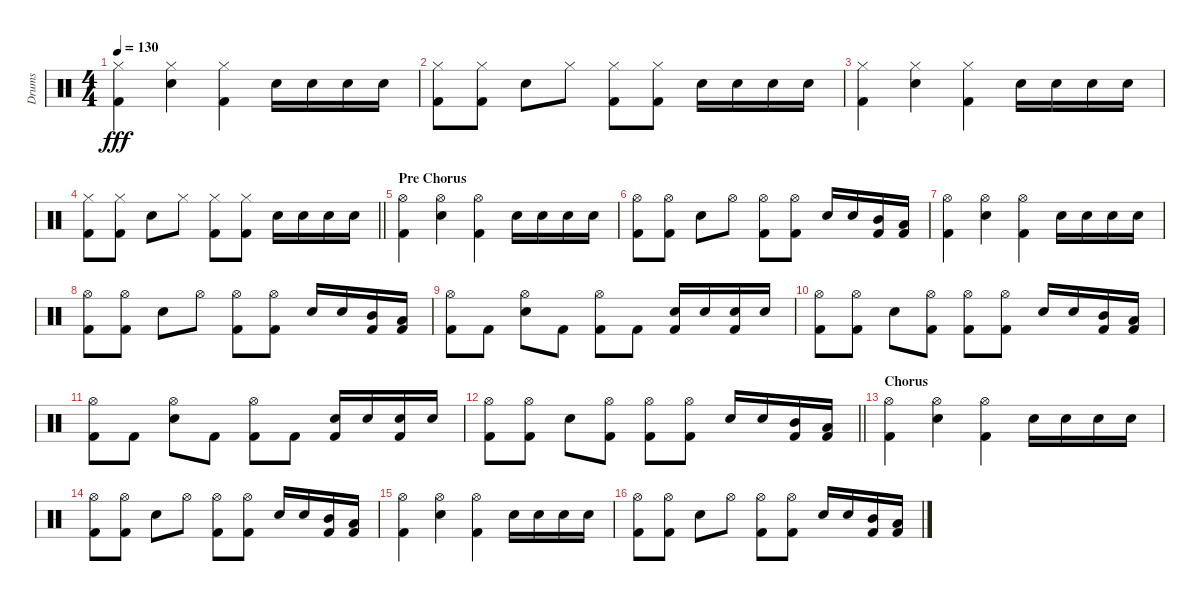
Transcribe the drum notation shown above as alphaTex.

\track ("Drums" "Drums") {instrument percussion}
\staff {score}
\articulation defaults
\ts (4 4)
\tempo 130
\clef neutral
\ks c
("Hi-Hat (closed)" "Kick (hit) 2").4{dy fff} ("Hi-Hat (closed)" "Electric Snare (hit)").4 ("Hi-Hat (closed)" "Kick (hit) 2").4 "Electric Snare (hit)".16 "Electric Snare (hit)".16 "Electric Snare (hit)".16 "Electric Snare (hit)".16 |
("Hi-Hat (closed)" "Kick (hit) 2").8 ("Hi-Hat (closed)" "Kick (hit) 2").8 "Electric Snare (hit)".8 "Hi-Hat (closed)".8 ("Hi-Hat (closed)" "Kick (hit) 2").8 ("Hi-Hat (closed)" "Kick (hit) 2").8 "Electric Snare (hit)".16 "Electric Snare (hit)".16 "Electric Snare (hit)".16 "Electric Snare (hit)".16 |
("Hi-Hat (closed)" "Kick (hit) 2").4 ("Hi-Hat (closed)" "Electric Snare (hit)").4 ("Hi-Hat (closed)" "Kick (hit) 2").4 "Electric Snare (hit)".16 "Electric Snare (hit)".16 "Electric Snare (hit)".16 "Electric Snare (hit)".16 |
\barLineRight lightlight
("Hi-Hat (closed)" "Kick (hit) 2").8 ("Hi-Hat (closed)" "Kick (hit) 2").8 "Electric Snare (hit)".8 "Hi-Hat (closed)".8 ("Hi-Hat (closed)" "Kick (hit) 2").8 ("Hi-Hat (closed)" "Kick (hit) 2").8 "Electric Snare (hit)".16 "Electric Snare (hit)".16 "Electric Snare (hit)".16 "Electric Snare (hit)".16 |
\section ("" "Pre Chorus")
("Hi-Hat (open)" "Kick (hit) 2").4 ("Hi-Hat (open)" "Electric Snare (hit)").4 ("Hi-Hat (open)" "Kick (hit) 2").4 "Electric Snare (hit)".16 "Electric Snare (hit)".16 "Electric Snare (hit)".16 "Electric Snare (hit)".16 |
("Hi-Hat (open)" "Kick (hit) 2").8 ("Hi-Hat (open)" "Kick (hit) 2").8 "Electric Snare (hit)".8 "Hi-Hat (open)".8 ("Hi-Hat (open)" "Kick (hit) 2").8 ("Hi-Hat (open)" "Kick (hit) 2").8 "Electric Snare (hit)".16 "Electric Snare (hit)".16 ("Mid Tom (hit)" "Kick (hit) 2").16 ("Low Tom (hit)" "Kick (hit) 2").16 |
("Hi-Hat (open)" "Kick (hit) 2").4 ("Hi-Hat (open)" "Electric Snare (hit)").4 ("Hi-Hat (open)" "Kick (hit) 2").4 "Electric Snare (hit)".16 "Electric Snare (hit)".16 "Electric Snare (hit)".16 "Electric Snare (hit)".16 |
("Hi-Hat (open)" "Kick (hit) 2").8 ("Hi-Hat (open)" "Kick (hit) 2").8 "Electric Snare (hit)".8 "Hi-Hat (open)".8 ("Hi-Hat (open)" "Kick (hit) 2").8 ("Hi-Hat (open)" "Kick (hit) 2").8 "Electric Snare (hit)".16 "Electric Snare (hit)".16 ("Mid Tom (hit)" "Kick (hit) 2").16 ("Low Tom (hit)" "Kick (hit) 2").16 |
("Hi-Hat (open)" "Kick (hit) 2").8 "Kick (hit) 2".8 ("Hi-Hat (open)" "Electric Snare (hit)").8 "Kick (hit) 2".8 ("Hi-Hat (open)" "Kick (hit) 2").8 "Kick (hit) 2".8 ("Electric Snare (hit)" "Kick (hit) 2").16 "Electric Snare (hit)".16 ("Electric Snare (hit)" "Kick (hit) 2").16 "Electric Snare (hit)".16 |
("Hi-Hat (open)" "Kick (hit) 2").8 ("Hi-Hat (open)" "Kick (hit) 2").8 "Electric Snare (hit)".8 ("Hi-Hat (open)" "Kick (hit) 2").8 ("Hi-Hat (open)" "Kick (hit) 2").8 ("Hi-Hat (open)" "Kick (hit) 2").8 "Electric Snare (hit)".16 "Electric Snare (hit)".16 ("Mid Tom (hit)" "Kick (hit) 2").16 ("Low Tom (hit)" "Kick (hit) 2").16 |
("Hi-Hat (open)" "Kick (hit) 2").8 "Kick (hit) 2".8 ("Hi-Hat (open)" "Electric Snare (hit)").8 "Kick (hit) 2".8 ("Hi-Hat (open)" "Kick (hit) 2").8 "Kick (hit) 2".8 ("Electric Snare (hit)" "Kick (hit) 2").16 "Electric Snare (hit)".16 ("Electric Snare (hit)" "Kick (hit) 2").16 "Electric Snare (hit)".16 |
\barLineRight lightlight
("Hi-Hat (open)" "Kick (hit) 2").8 ("Hi-Hat (open)" "Kick (hit) 2").8 "Electric Snare (hit)".8 ("Hi-Hat (open)" "Kick (hit) 2").8 ("Hi-Hat (open)" "Kick (hit) 2").8 ("Hi-Hat (open)" "Kick (hit) 2").8 "Electric Snare (hit)".16 "Electric Snare (hit)".16 ("Mid Tom (hit)" "Kick (hit) 2").16 ("Low Tom (hit)" "Kick (hit) 2").16 |
\section ("" "Chorus")
("Hi-Hat (open)" "Kick (hit) 2").4 ("Hi-Hat (open)" "Electric Snare (hit)").4 ("Hi-Hat (open)" "Kick (hit) 2").4 "Electric Snare (hit)".16 "Electric Snare (hit)".16 "Electric Snare (hit)".16 "Electric Snare (hit)".16 |
("Hi-Hat (open)" "Kick (hit) 2").8 ("Hi-Hat (open)" "Kick (hit) 2").8 "Electric Snare (hit)".8 "Hi-Hat (open)".8 ("Hi-Hat (open)" "Kick (hit) 2").8 ("Hi-Hat (open)" "Kick (hit) 2").8 "Electric Snare (hit)".16 "Electric Snare (hit)".16 ("Mid Tom (hit)" "Kick (hit) 2").16 ("Low Tom (hit)" "Kick (hit) 2").16 |
("Hi-Hat (open)" "Kick (hit) 2").4 ("Hi-Hat (open)" "Electric Snare (hit)").4 ("Hi-Hat (open)" "Kick (hit) 2").4 "Electric Snare (hit)".16 "Electric Snare (hit)".16 "Electric Snare (hit)".16 "Electric Snare (hit)".16 |
("Hi-Hat (open)" "Kick (hit) 2").8 ("Hi-Hat (open)" "Kick (hit) 2").8 "Electric Snare (hit)".8 "Hi-Hat (open)".8 ("Hi-Hat (open)" "Kick (hit) 2").8 ("Hi-Hat (open)" "Kick (hit) 2").8 "Electric Snare (hit)".16 "Electric Snare (hit)".16 ("Mid Tom (hit)" "Kick (hit) 2").16 ("Low Tom (hit)" "Kick (hit) 2").16
